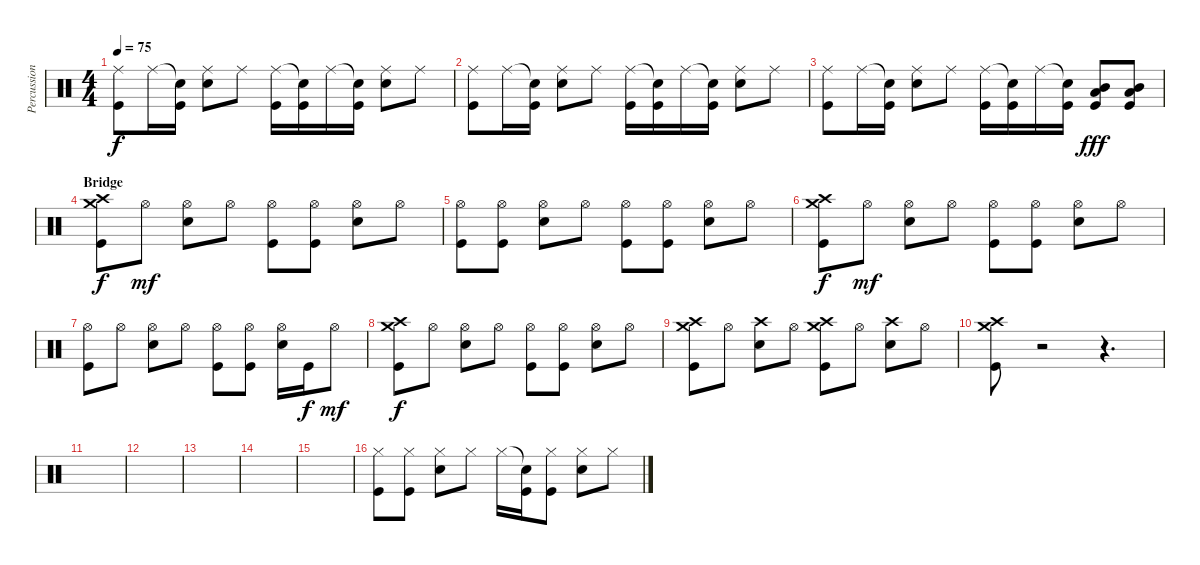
\track ("Percussion" "Percussion") {instrument percussion}
\staff {score}
\articulation defaults
\ts (4 4)
\tempo 75
\clef neutral
\ks c
("Ride (middle)" "Kick (hit)").8{dy f} "Ride (middle)".16 ("Snare (hit)"{t} "Kick (hit)").16 ("Ride (middle)" "Snare (hit) 2").8 "Ride (middle)".8 ("Ride (middle)" "Kick (hit)").16 ("Snare (hit)"{t} "Kick (hit)").16 "Ride (middle)".16 ("Snare (hit)"{t} "Kick (hit)").16 ("Ride (middle)" "Snare (hit) 2").8 "Ride (middle)".8 |
("Ride (middle)" "Kick (hit)").8 "Ride (middle)".16 ("Snare (hit)"{t} "Kick (hit)").16 ("Ride (middle)" "Snare (hit) 2").8 "Ride (middle)".8 ("Ride (middle)" "Kick (hit)").16 ("Snare (hit)"{t} "Kick (hit)").16 "Ride (middle)".16 ("Snare (hit)"{t} "Kick (hit)").16 ("Ride (middle)" "Snare (hit) 2").8 "Ride (middle)".8 |
("Ride (middle)" "Kick (hit)").8 "Ride (middle)".16 ("Snare (hit)"{t} "Kick (hit)").16 ("Ride (middle)" "Snare (hit) 2").8 "Ride (middle)".8 ("Ride (middle)" "Kick (hit)").16 ("Snare (hit)"{t} "Kick (hit)").16 "Ride (middle)".16 ("Snare (hit)"{t} "Kick (hit)").16 ("Low Tom (hit)" "Mid Tom (hit)" "Kick (hit)").8{dy fff} ("Low Tom (hit)" "Mid Tom (hit)" "Kick (hit)").8 |
\section ("" "Bridge")
("Crash high (hit)" "Crash medium (hit)" "Kick (hit)").8{dy f} "Hi-Hat (open)".8{dy mf} ("Hi-Hat (open)" "Snare (hit) 2").8 "Hi-Hat (open)".8 ("Hi-Hat (open)" "Kick (hit)").8 ("Hi-Hat (open)" "Kick (hit)").8 ("Hi-Hat (open)" "Snare (hit) 2").8 "Hi-Hat (open)".8 |
("Hi-Hat (open)" "Kick (hit)").8 ("Hi-Hat (open)" "Kick (hit)").8 ("Hi-Hat (open)" "Snare (hit) 2").8 "Hi-Hat (open)".8 ("Hi-Hat (open)" "Kick (hit)").8 ("Hi-Hat (open)" "Kick (hit)").8 ("Hi-Hat (open)" "Snare (hit) 2").8 "Hi-Hat (open)".8 |
("Crash high (hit)" "Crash medium (hit)" "Kick (hit)").8{dy f} "Hi-Hat (open)".8{dy mf} ("Hi-Hat (open)" "Snare (hit) 2").8 "Hi-Hat (open)".8 ("Hi-Hat (open)" "Kick (hit)").8 ("Hi-Hat (open)" "Kick (hit)").8 ("Hi-Hat (open)" "Snare (hit) 2").8 "Hi-Hat (open)".8 |
("Hi-Hat (open)" "Kick (hit)").8 "Hi-Hat (open)".8 ("Hi-Hat (open)" "Snare (hit) 2").8 "Hi-Hat (open)".8 ("Hi-Hat (open)" "Kick (hit)").8 ("Hi-Hat (open)" "Kick (hit)").8 ("Hi-Hat (open)" "Snare (hit) 2").16 "Kick (hit)".16{dy f} "Hi-Hat (open)".8{dy mf} |
("Crash high (hit)" "Crash medium (hit)" "Kick (hit)").8{dy f} "Hi-Hat (open)".8 ("Hi-Hat (open)" "Snare (hit) 2").8 "Hi-Hat (open)".8 ("Hi-Hat (open)" "Kick (hit)").8 ("Hi-Hat (open)" "Kick (hit)").8 ("Hi-Hat (open)" "Snare (hit) 2").8 "Hi-Hat (open)".8 |
("Crash high (hit)" "Crash medium (hit)" "Kick (hit)").8 "Hi-Hat (open)".8 ("Crash high (hit)" "Snare (hit) 2").8 "Hi-Hat (open)".8 ("Crash high (hit)" "Crash medium (hit)" "Kick (hit)").8 "Hi-Hat (open)".8 ("Crash high (hit)" "Snare (hit) 2").8 "Hi-Hat (open)".8 |
("Crash high (hit)" "Crash medium (hit)" "Kick (hit)").8 r.2 r.4{d} |
|
|
|
|
|
("Hi-Hat (closed)" "Kick (hit)").8 ("Hi-Hat (closed)" "Kick (hit)").8 ("Hi-Hat (closed)" "Snare (hit) 2").8 "Hi-Hat (closed)".8 "Hi-Hat (closed)".16 ("Snare (hit)"{t} "Kick (hit)").16 ("Hi-Hat (closed)" "Kick (hit)").8 ("Hi-Hat (closed)" "Snare (hit) 2").8 "Hi-Hat (closed)".8
